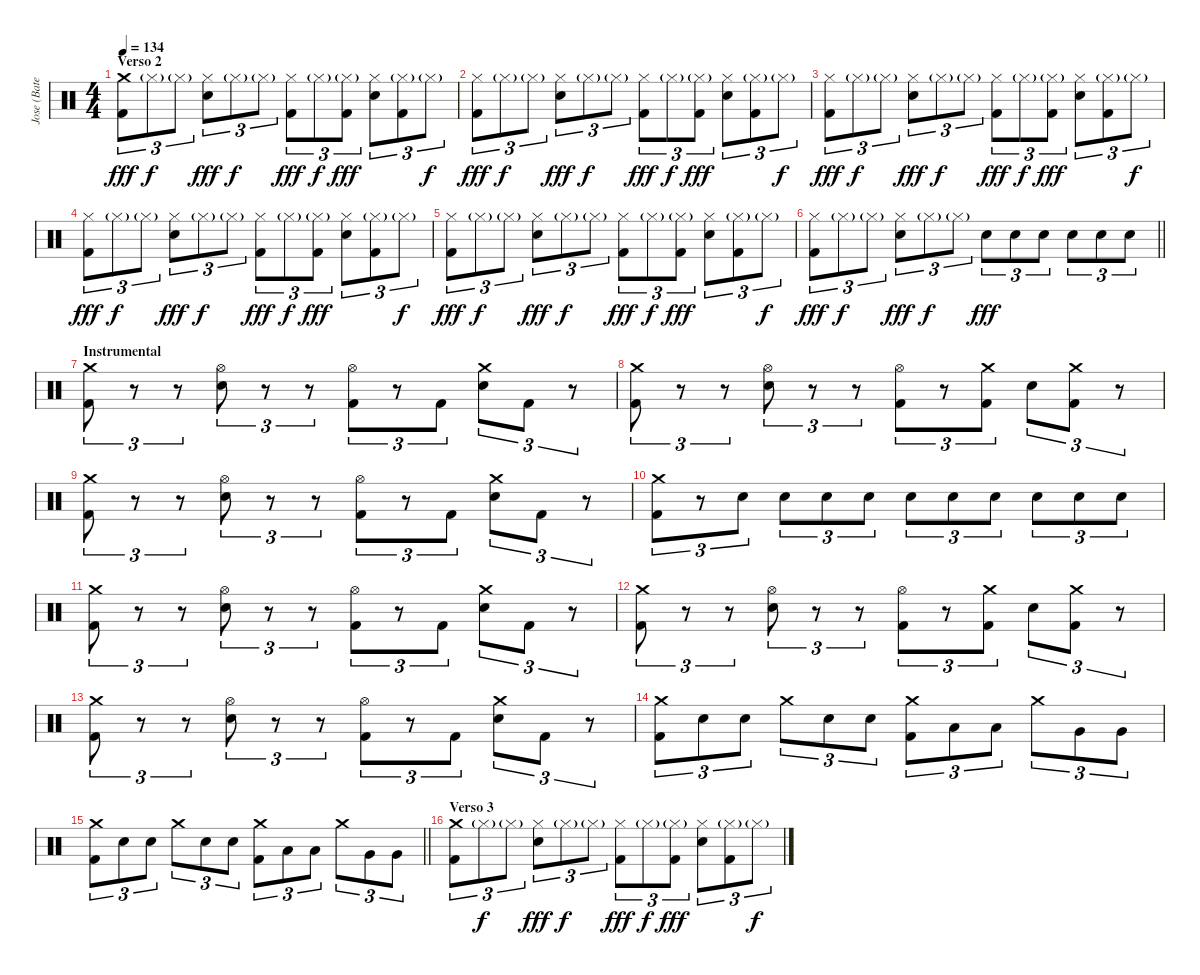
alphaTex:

\track ("Jose (Bateria)" "Jose (Bate") {instrument percussion}
\staff {score}
\articulation defaults
\ts (4 4)
\section ("" "Verso 2")
\tempo 134
\clef neutral
\ks c
("Crash medium (hit)" "Kick (hit) 2").8{tu (3 2) dy fff} "Hi-Hat (closed)"{g}.8{tu (3 2) dy f} "Hi-Hat (closed)"{g}.8{tu (3 2)} ("Hi-Hat (closed)" "Snare (hit) 2").8{tu (3 2) dy fff} "Hi-Hat (closed)"{g}.8{tu (3 2) dy f} "Hi-Hat (closed)"{g}.8{tu (3 2)} ("Hi-Hat (closed)" "Kick (hit) 2").8{tu (3 2) dy fff} "Hi-Hat (closed)"{g}.8{tu (3 2) dy f} ("Hi-Hat (closed)"{g} "Kick (hit) 2").8{tu (3 2) dy fff} ("Hi-Hat (closed)" "Snare (hit) 2").8{tu (3 2)} ("Hi-Hat (closed)"{g} "Kick (hit) 2").8{tu (3 2)} "Hi-Hat (closed)"{g}.8{tu (3 2) dy f} |
("Hi-Hat (closed)" "Kick (hit) 2").8{tu (3 2) dy fff} "Hi-Hat (closed)"{g}.8{tu (3 2) dy f} "Hi-Hat (closed)"{g}.8{tu (3 2)} ("Hi-Hat (closed)" "Snare (hit) 2").8{tu (3 2) dy fff} "Hi-Hat (closed)"{g}.8{tu (3 2) dy f} "Hi-Hat (closed)"{g}.8{tu (3 2)} ("Hi-Hat (closed)" "Kick (hit) 2").8{tu (3 2) dy fff} "Hi-Hat (closed)"{g}.8{tu (3 2) dy f} ("Hi-Hat (closed)"{g} "Kick (hit) 2").8{tu (3 2) dy fff} ("Hi-Hat (closed)" "Snare (hit) 2").8{tu (3 2)} ("Hi-Hat (closed)"{g} "Kick (hit) 2").8{tu (3 2)} "Hi-Hat (closed)"{g}.8{tu (3 2) dy f} |
("Hi-Hat (closed)" "Kick (hit) 2").8{tu (3 2) dy fff} "Hi-Hat (closed)"{g}.8{tu (3 2) dy f} "Hi-Hat (closed)"{g}.8{tu (3 2)} ("Hi-Hat (closed)" "Snare (hit) 2").8{tu (3 2) dy fff} "Hi-Hat (closed)"{g}.8{tu (3 2) dy f} "Hi-Hat (closed)"{g}.8{tu (3 2)} ("Hi-Hat (closed)" "Kick (hit) 2").8{tu (3 2) dy fff} "Hi-Hat (closed)"{g}.8{tu (3 2) dy f} ("Hi-Hat (closed)"{g} "Kick (hit) 2").8{tu (3 2) dy fff} ("Hi-Hat (closed)" "Snare (hit) 2").8{tu (3 2)} ("Hi-Hat (closed)"{g} "Kick (hit) 2").8{tu (3 2)} "Hi-Hat (closed)"{g}.8{tu (3 2) dy f} |
("Hi-Hat (closed)" "Kick (hit) 2").8{tu (3 2) dy fff} "Hi-Hat (closed)"{g}.8{tu (3 2) dy f} "Hi-Hat (closed)"{g}.8{tu (3 2)} ("Hi-Hat (closed)" "Snare (hit) 2").8{tu (3 2) dy fff} "Hi-Hat (closed)"{g}.8{tu (3 2) dy f} "Hi-Hat (closed)"{g}.8{tu (3 2)} ("Hi-Hat (closed)" "Kick (hit) 2").8{tu (3 2) dy fff} "Hi-Hat (closed)"{g}.8{tu (3 2) dy f} ("Hi-Hat (closed)"{g} "Kick (hit) 2").8{tu (3 2) dy fff} ("Hi-Hat (closed)" "Snare (hit) 2").8{tu (3 2)} ("Hi-Hat (closed)"{g} "Kick (hit) 2").8{tu (3 2)} "Hi-Hat (closed)"{g}.8{tu (3 2) dy f} |
("Hi-Hat (closed)" "Kick (hit) 2").8{tu (3 2) dy fff} "Hi-Hat (closed)"{g}.8{tu (3 2) dy f} "Hi-Hat (closed)"{g}.8{tu (3 2)} ("Hi-Hat (closed)" "Snare (hit) 2").8{tu (3 2) dy fff} "Hi-Hat (closed)"{g}.8{tu (3 2) dy f} "Hi-Hat (closed)"{g}.8{tu (3 2)} ("Hi-Hat (closed)" "Kick (hit) 2").8{tu (3 2) dy fff} "Hi-Hat (closed)"{g}.8{tu (3 2) dy f} ("Hi-Hat (closed)"{g} "Kick (hit) 2").8{tu (3 2) dy fff} ("Hi-Hat (closed)" "Snare (hit) 2").8{tu (3 2)} ("Hi-Hat (closed)"{g} "Kick (hit) 2").8{tu (3 2)} "Hi-Hat (closed)"{g}.8{tu (3 2) dy f} |
\barLineRight lightlight
("Hi-Hat (closed)" "Kick (hit) 2").8{tu (3 2) dy fff} "Hi-Hat (closed)"{g}.8{tu (3 2) dy f} "Hi-Hat (closed)"{g}.8{tu (3 2)} ("Hi-Hat (closed)" "Snare (hit) 2").8{tu (3 2) dy fff} "Hi-Hat (closed)"{g}.8{tu (3 2) dy f} "Hi-Hat (closed)"{g}.8{tu (3 2)} "Snare (hit) 2".8{tu (3 2) dy fff} "Snare (hit) 2".8{tu (3 2)} "Snare (hit) 2".8{tu (3 2)} "Snare (hit) 2".8{tu (3 2)} "Snare (hit) 2".8{tu (3 2)} "Snare (hit) 2".8{tu (3 2)} |
\section ("" "Instrumental")
("Crash medium (hit)" "Kick (hit) 2").8{tu (3 2)} r.8{tu (3 2)} r.8{tu (3 2)} ("Hi-Hat (open)" "Snare (hit) 2").8{tu (3 2)} r.8{tu (3 2)} r.8{tu (3 2)} ("Hi-Hat (open)" "Kick (hit) 2").8{tu (3 2)} r.8{tu (3 2)} "Kick (hit) 2".8{tu (3 2)} ("Crash medium (hit)" "Snare (hit) 2").8{tu (3 2)} "Kick (hit) 2".8{tu (3 2)} r.8{tu (3 2)} |
("Crash medium (hit)" "Kick (hit) 2").8{tu (3 2)} r.8{tu (3 2)} r.8{tu (3 2)} ("Hi-Hat (open)" "Snare (hit) 2").8{tu (3 2)} r.8{tu (3 2)} r.8{tu (3 2)} ("Hi-Hat (open)" "Kick (hit) 2").8{tu (3 2)} r.8{tu (3 2)} ("Crash medium (hit)" "Kick (hit) 2").8{tu (3 2)} "Snare (hit) 2".8{tu (3 2)} ("Crash medium (hit)" "Kick (hit) 2").8{tu (3 2)} r.8{tu (3 2)} |
("Crash medium (hit)" "Kick (hit) 2").8{tu (3 2)} r.8{tu (3 2)} r.8{tu (3 2)} ("Hi-Hat (open)" "Snare (hit) 2").8{tu (3 2)} r.8{tu (3 2)} r.8{tu (3 2)} ("Hi-Hat (open)" "Kick (hit) 2").8{tu (3 2)} r.8{tu (3 2)} "Kick (hit) 2".8{tu (3 2)} ("Crash medium (hit)" "Snare (hit) 2").8{tu (3 2)} "Kick (hit) 2".8{tu (3 2)} r.8{tu (3 2)} |
("Crash medium (hit)" "Kick (hit) 2").8{tu (3 2)} r.8{tu (3 2)} "Snare (hit) 2".8{tu (3 2)} "Snare (hit) 2".8{tu (3 2)} "Snare (hit) 2".8{tu (3 2)} "Snare (hit) 2".8{tu (3 2)} "Snare (hit) 2".8{tu (3 2)} "Snare (hit) 2".8{tu (3 2)} "Snare (hit) 2".8{tu (3 2)} "Snare (hit) 2".8{tu (3 2)} "Snare (hit) 2".8{tu (3 2)} "Snare (hit) 2".8{tu (3 2)} |
("Crash medium (hit)" "Kick (hit) 2").8{tu (3 2)} r.8{tu (3 2)} r.8{tu (3 2)} ("Hi-Hat (open)" "Snare (hit) 2").8{tu (3 2)} r.8{tu (3 2)} r.8{tu (3 2)} ("Hi-Hat (open)" "Kick (hit) 2").8{tu (3 2)} r.8{tu (3 2)} "Kick (hit) 2".8{tu (3 2)} ("Crash medium (hit)" "Snare (hit) 2").8{tu (3 2)} "Kick (hit) 2".8{tu (3 2)} r.8{tu (3 2)} |
("Crash medium (hit)" "Kick (hit) 2").8{tu (3 2)} r.8{tu (3 2)} r.8{tu (3 2)} ("Hi-Hat (open)" "Snare (hit) 2").8{tu (3 2)} r.8{tu (3 2)} r.8{tu (3 2)} ("Hi-Hat (open)" "Kick (hit) 2").8{tu (3 2)} r.8{tu (3 2)} ("Crash medium (hit)" "Kick (hit) 2").8{tu (3 2)} "Snare (hit) 2".8{tu (3 2)} ("Crash medium (hit)" "Kick (hit) 2").8{tu (3 2)} r.8{tu (3 2)} |
("Crash medium (hit)" "Kick (hit) 2").8{tu (3 2)} r.8{tu (3 2)} r.8{tu (3 2)} ("Hi-Hat (open)" "Snare (hit) 2").8{tu (3 2)} r.8{tu (3 2)} r.8{tu (3 2)} ("Hi-Hat (open)" "Kick (hit) 2").8{tu (3 2)} r.8{tu (3 2)} "Kick (hit) 2".8{tu (3 2)} ("Crash medium (hit)" "Snare (hit) 2").8{tu (3 2)} "Kick (hit) 2".8{tu (3 2)} r.8{tu (3 2)} |
("Crash medium (hit)" "Kick (hit) 2").8{tu (3 2)} "Snare (hit) 2".8{tu (3 2)} "Snare (hit) 2".8{tu (3 2)} "Crash medium (hit)".8{tu (3 2)} "Snare (hit) 2".8{tu (3 2)} "Snare (hit) 2".8{tu (3 2)} ("Crash medium (hit)" "Kick (hit) 2").8{tu (3 2)} "Low Tom (hit)".8{tu (3 2)} "Low Tom (hit)".8{tu (3 2)} "Crash medium (hit)".8{tu (3 2)} "Very Low Tom (hit)".8{tu (3 2)} "Very Low Tom (hit)".8{tu (3 2)} |
\barLineRight lightlight
("Crash medium (hit)" "Kick (hit) 2").8{tu (3 2)} "Snare (hit) 2".8{tu (3 2)} "Snare (hit) 2".8{tu (3 2)} "Crash medium (hit)".8{tu (3 2)} "Snare (hit) 2".8{tu (3 2)} "Snare (hit) 2".8{tu (3 2)} ("Crash medium (hit)" "Kick (hit) 2").8{tu (3 2)} "Low Tom (hit)".8{tu (3 2)} "Low Tom (hit)".8{tu (3 2)} "Crash medium (hit)".8{tu (3 2)} "Very Low Tom (hit)".8{tu (3 2)} "Very Low Tom (hit)".8{tu (3 2)} |
\section ("" "Verso 3")
("Crash medium (hit)" "Kick (hit) 2").8{tu (3 2)} "Hi-Hat (closed)"{g}.8{tu (3 2) dy f} "Hi-Hat (closed)"{g}.8{tu (3 2)} ("Hi-Hat (closed)" "Snare (hit) 2").8{tu (3 2) dy fff} "Hi-Hat (closed)"{g}.8{tu (3 2) dy f} "Hi-Hat (closed)"{g}.8{tu (3 2)} ("Hi-Hat (closed)" "Kick (hit) 2").8{tu (3 2) dy fff} "Hi-Hat (closed)"{g}.8{tu (3 2) dy f} ("Hi-Hat (closed)"{g} "Kick (hit) 2").8{tu (3 2) dy fff} ("Hi-Hat (closed)" "Snare (hit) 2").8{tu (3 2)} ("Hi-Hat (closed)"{g} "Kick (hit) 2").8{tu (3 2)} "Hi-Hat (closed)"{g}.8{tu (3 2) dy f}
